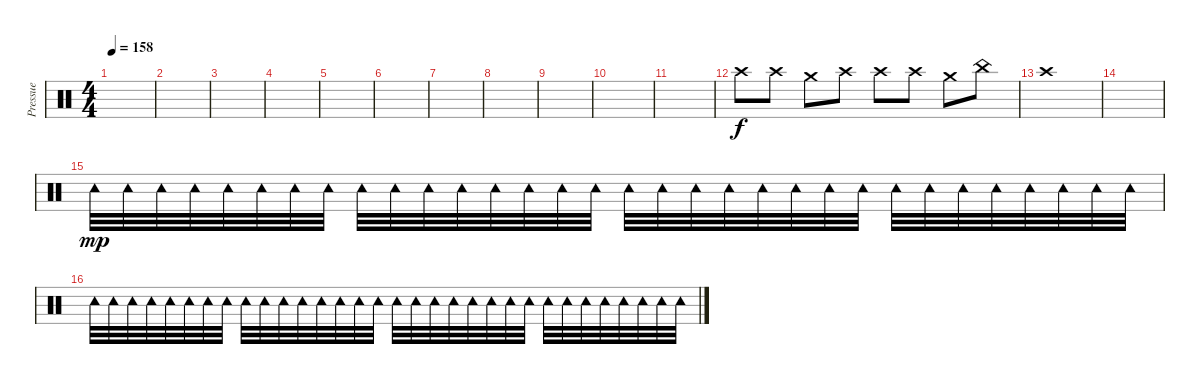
\track ("Pressue" "Pressue") {instrument percussion}
\staff {score}
\articulation defaults
\ts (4 4)
\tempo 158
\clef neutral
\ks c
|
|
|
|
|
|
|
|
|
|
|
"Crash high (hit)".8 "Crash high (hit)".8 "Crash medium (hit)".8 "Crash high (hit)".8 "Crash high (hit)".8 "Crash high (hit)".8 "Crash medium (hit)".8 "China (hit)".8 |
"Crash high (hit)".1 |
|
"Tambourine (hit)".32{dy mp} "Tambourine (hit)".32 "Tambourine (hit)".32 "Tambourine (hit)".32 "Tambourine (hit)".32 "Tambourine (hit)".32 "Tambourine (hit)".32 "Tambourine (hit)".32 "Tambourine (hit)".32 "Tambourine (hit)".32 "Tambourine (hit)".32 "Tambourine (hit)".32 "Tambourine (hit)".32 "Tambourine (hit)".32 "Tambourine (hit)".32 "Tambourine (hit)".32 "Tambourine (hit)".32 "Tambourine (hit)".32 "Tambourine (hit)".32 "Tambourine (hit)".32 "Tambourine (hit)".32 "Tambourine (hit)".32 "Tambourine (hit)".32 "Tambourine (hit)".32 "Tambourine (hit)".32 "Tambourine (hit)".32 "Tambourine (hit)".32 "Tambourine (hit)".32 "Tambourine (hit)".32 "Tambourine (hit)".32 "Tambourine (hit)".32 "Tambourine (hit)".32 |
"Tambourine (hit)".32 "Tambourine (hit)".32 "Tambourine (hit)".32 "Tambourine (hit)".32 "Tambourine (hit)".32 "Tambourine (hit)".32 "Tambourine (hit)".32 "Tambourine (hit)".32 "Tambourine (hit)".32 "Tambourine (hit)".32 "Tambourine (hit)".32 "Tambourine (hit)".32 "Tambourine (hit)".32 "Tambourine (hit)".32 "Tambourine (hit)".32 "Tambourine (hit)".32 "Tambourine (hit)".32 "Tambourine (hit)".32 "Tambourine (hit)".32 "Tambourine (hit)".32 "Tambourine (hit)".32 "Tambourine (hit)".32 "Tambourine (hit)".32 "Tambourine (hit)".32 "Tambourine (hit)".32 "Tambourine (hit)".32 "Tambourine (hit)".32 "Tambourine (hit)".32 "Tambourine (hit)".32 "Tambourine (hit)".32 "Tambourine (hit)".32 "Tambourine (hit)".32
